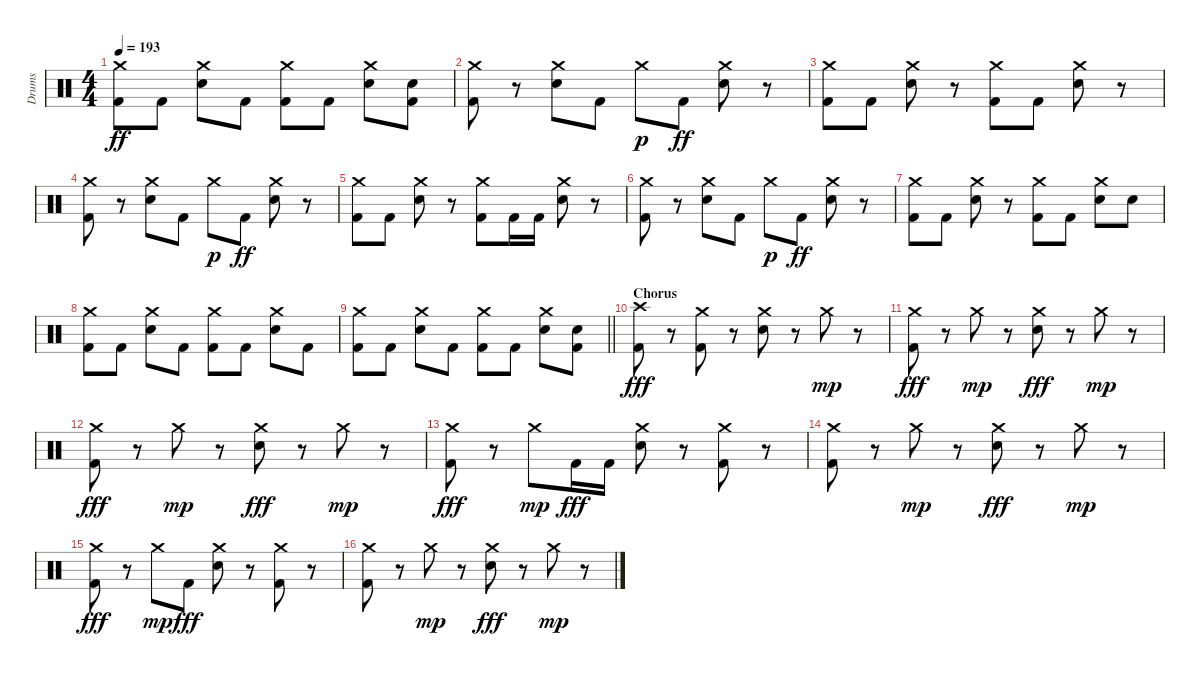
\track ("Drums" "Drums") {instrument percussion}
\staff {score}
\articulation defaults
\ts (4 4)
\tempo 193
\clef neutral
\ks c
("Crash medium (hit)" "Kick (hit) 2").8{dy ff} "Kick (hit) 2".8 ("Crash medium (hit)" "Snare (hit) 2").8 "Kick (hit) 2".8 ("Crash medium (hit)" "Kick (hit) 2").8 "Kick (hit) 2".8 ("Crash medium (hit)" "Snare (hit) 2").8 ("Snare (hit) 2" "Kick (hit) 2").8 |
("Crash medium (hit)" "Kick (hit) 2").8 r.8 ("Crash medium (hit)" "Snare (hit) 2").8 "Kick (hit) 2".8 "Crash medium (hit)".8{dy p} "Kick (hit) 2".8{dy ff} ("Crash medium (hit)" "Snare (hit) 2").8 r.8 |
("Crash medium (hit)" "Kick (hit) 2").8 "Kick (hit) 2".8 ("Crash medium (hit)" "Snare (hit) 2").8 r.8 ("Crash medium (hit)" "Kick (hit) 2").8 "Kick (hit) 2".8 ("Crash medium (hit)" "Snare (hit) 2").8 r.8 |
("Crash medium (hit)" "Kick (hit) 2").8 r.8 ("Crash medium (hit)" "Snare (hit) 2").8 "Kick (hit) 2".8 "Crash medium (hit)".8{dy p} "Kick (hit) 2".8{dy ff} ("Crash medium (hit)" "Snare (hit) 2").8 r.8 |
("Crash medium (hit)" "Kick (hit) 2").8 "Kick (hit) 2".8 ("Crash medium (hit)" "Snare (hit) 2").8 r.8 ("Crash medium (hit)" "Kick (hit) 2").8 "Kick (hit) 2".16 "Kick (hit) 2".16 ("Crash medium (hit)" "Snare (hit) 2").8 r.8 |
("Crash medium (hit)" "Kick (hit) 2").8 r.8 ("Crash medium (hit)" "Snare (hit) 2").8 "Kick (hit) 2".8 "Crash medium (hit)".8{dy p} "Kick (hit) 2".8{dy ff} ("Crash medium (hit)" "Snare (hit) 2").8 r.8 |
("Crash medium (hit)" "Kick (hit) 2").8 "Kick (hit) 2".8 ("Crash medium (hit)" "Snare (hit) 2").8 r.8 ("Crash medium (hit)" "Kick (hit) 2").8 "Kick (hit) 2".8 ("Crash medium (hit)" "Snare (hit) 2").8 "Snare (hit) 2".8 |
("Crash medium (hit)" "Kick (hit) 2").8 "Kick (hit) 2".8 ("Crash medium (hit)" "Snare (hit) 2").8 "Kick (hit) 2".8 ("Crash medium (hit)" "Kick (hit) 2").8 "Kick (hit) 2".8 ("Crash medium (hit)" "Snare (hit) 2").8 "Kick (hit) 2".8 |
\barLineRight lightlight
("Crash medium (hit)" "Kick (hit) 2").8 "Kick (hit) 2".8 ("Crash medium (hit)" "Snare (hit) 2").8 "Kick (hit) 2".8 ("Crash medium (hit)" "Kick (hit) 2").8 "Kick (hit) 2".8 ("Crash medium (hit)" "Snare (hit) 2").8 ("Snare (hit) 2" "Kick (hit) 2").8 |
\section ("" "Chorus")
("Crash high (hit)" "Kick (hit) 2").8{dy fff} r.8 ("Crash medium (hit)" "Kick (hit) 2").8 r.8 ("Crash medium (hit)" "Snare (hit) 2").8 r.8 "Crash medium (hit)".8{dy mp} r.8 |
("Crash medium (hit)" "Kick (hit) 2").8{dy fff} r.8 "Crash medium (hit)".8{dy mp} r.8 ("Crash medium (hit)" "Snare (hit) 2").8{dy fff} r.8 "Crash medium (hit)".8{dy mp} r.8 |
("Crash medium (hit)" "Kick (hit) 2").8{dy fff} r.8 "Crash medium (hit)".8{dy mp} r.8 ("Crash medium (hit)" "Snare (hit) 2").8{dy fff} r.8 "Crash medium (hit)".8{dy mp} r.8 |
("Crash medium (hit)" "Kick (hit) 2").8{dy fff} r.8 "Crash medium (hit)".8{dy mp} "Kick (hit) 2".16{dy fff} "Kick (hit) 2".16 ("Crash medium (hit)" "Snare (hit) 2").8 r.8 ("Crash medium (hit)" "Kick (hit) 2").8 r.8 |
("Crash medium (hit)" "Kick (hit) 2").8 r.8 "Crash medium (hit)".8{dy mp} r.8 ("Crash medium (hit)" "Snare (hit) 2").8{dy fff} r.8 "Crash medium (hit)".8{dy mp} r.8 |
("Crash medium (hit)" "Kick (hit) 2").8{dy fff} r.8 "Crash medium (hit)".8{dy mp} "Kick (hit) 2".8{dy fff} ("Crash medium (hit)" "Snare (hit) 2").8 r.8 ("Crash medium (hit)" "Kick (hit) 2").8 r.8 |
("Crash medium (hit)" "Kick (hit) 2").8 r.8 "Crash medium (hit)".8{dy mp} r.8 ("Crash medium (hit)" "Snare (hit) 2").8{dy fff} r.8 "Crash medium (hit)".8{dy mp} r.8
